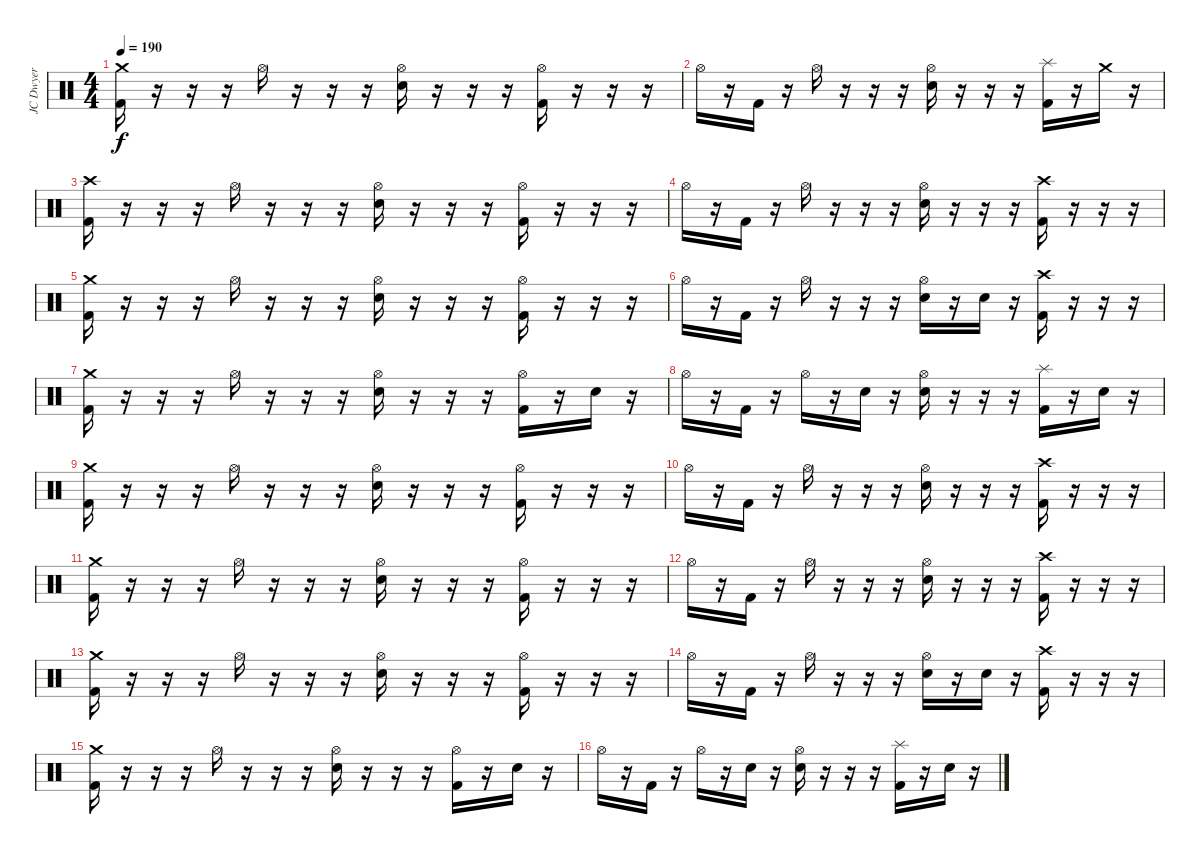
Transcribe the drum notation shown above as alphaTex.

\track ("JC Dwyer" "JC Dwyer") {instrument percussion}
\staff {score}
\articulation defaults
\ts (4 4)
\tempo 190
\clef neutral
\ks c
("Crash medium (hit)" "Kick (hit) 2").16{dy f} r.16 r.16 r.16 "Hi-Hat (open)".16 r.16 r.16 r.16 ("Hi-Hat (open)" "Electric Snare (hit)").16 r.16 r.16 r.16 ("Hi-Hat (open)" "Kick (hit) 2").16 r.16 r.16 r.16 |
"Hi-Hat (open)".16 r.16 "Kick (hit) 2".16 r.16 "Hi-Hat (open)".16 r.16 r.16 r.16 ("Hi-Hat (open)" "Electric Snare (hit)").16 r.16 r.16 r.16 ("Splash (hit)" "Kick (hit) 2").16 r.16 "Crash medium (hit)".16 r.16 |
("Crash high (hit)" "Kick (hit) 2").16 r.16 r.16 r.16 "Hi-Hat (open)".16 r.16 r.16 r.16 ("Hi-Hat (open)" "Electric Snare (hit)").16 r.16 r.16 r.16 ("Hi-Hat (open)" "Kick (hit) 2").16 r.16 r.16 r.16 |
"Hi-Hat (open)".16 r.16 "Kick (hit) 2".16 r.16 "Hi-Hat (open)".16 r.16 r.16 r.16 ("Hi-Hat (open)" "Electric Snare (hit)").16 r.16 r.16 r.16 ("Crash high (hit)" "Kick (hit) 2").16 r.16 r.16 r.16 |
("Crash medium (hit)" "Kick (hit) 2").16 r.16 r.16 r.16 "Hi-Hat (open)".16 r.16 r.16 r.16 ("Hi-Hat (open)" "Electric Snare (hit)").16 r.16 r.16 r.16 ("Hi-Hat (open)" "Kick (hit) 2").16 r.16 r.16 r.16 |
"Hi-Hat (open)".16 r.16 "Kick (hit) 2".16 r.16 "Hi-Hat (open)".16 r.16 r.16 r.16 ("Hi-Hat (open)" "Electric Snare (hit)").16 r.16 "Electric Snare (hit)".16 r.16 ("Crash high (hit)" "Kick (hit) 2").16 r.16 r.16 r.16 |
("Crash medium (hit)" "Kick (hit) 2").16 r.16 r.16 r.16 "Hi-Hat (open)".16 r.16 r.16 r.16 ("Hi-Hat (open)" "Electric Snare (hit)").16 r.16 r.16 r.16 ("Hi-Hat (open)" "Kick (hit) 2").16 r.16 "Electric Snare (hit)".16 r.16 |
"Hi-Hat (open)".16 r.16 "Kick (hit) 2".16 r.16 "Hi-Hat (open)".16 r.16 "Electric Snare (hit)".16 r.16 ("Hi-Hat (open)" "Electric Snare (hit)").16 r.16 r.16 r.16 ("Splash (hit)" "Kick (hit) 2").16 r.16 "Electric Snare (hit)".16 r.16 |
("Crash medium (hit)" "Kick (hit) 2").16 r.16 r.16 r.16 "Hi-Hat (open)".16 r.16 r.16 r.16 ("Hi-Hat (open)" "Electric Snare (hit)").16 r.16 r.16 r.16 ("Hi-Hat (open)" "Kick (hit) 2").16 r.16 r.16 r.16 |
"Hi-Hat (open)".16 r.16 "Kick (hit) 2".16 r.16 "Hi-Hat (open)".16 r.16 r.16 r.16 ("Hi-Hat (open)" "Electric Snare (hit)").16 r.16 r.16 r.16 ("Crash high (hit)" "Kick (hit) 2").16 r.16 r.16 r.16 |
("Crash medium (hit)" "Kick (hit) 2").16 r.16 r.16 r.16 "Hi-Hat (open)".16 r.16 r.16 r.16 ("Hi-Hat (open)" "Electric Snare (hit)").16 r.16 r.16 r.16 ("Hi-Hat (open)" "Kick (hit) 2").16 r.16 r.16 r.16 |
"Hi-Hat (open)".16 r.16 "Kick (hit) 2".16 r.16 "Hi-Hat (open)".16 r.16 r.16 r.16 ("Hi-Hat (open)" "Electric Snare (hit)").16 r.16 r.16 r.16 ("Crash high (hit)" "Kick (hit) 2").16 r.16 r.16 r.16 |
("Crash medium (hit)" "Kick (hit) 2").16 r.16 r.16 r.16 "Hi-Hat (open)".16 r.16 r.16 r.16 ("Hi-Hat (open)" "Electric Snare (hit)").16 r.16 r.16 r.16 ("Hi-Hat (open)" "Kick (hit) 2").16 r.16 r.16 r.16 |
"Hi-Hat (open)".16 r.16 "Kick (hit) 2".16 r.16 "Hi-Hat (open)".16 r.16 r.16 r.16 ("Hi-Hat (open)" "Electric Snare (hit)").16 r.16 "Electric Snare (hit)".16 r.16 ("Crash high (hit)" "Kick (hit) 2").16 r.16 r.16 r.16 |
("Crash medium (hit)" "Kick (hit) 2").16 r.16 r.16 r.16 "Hi-Hat (open)".16 r.16 r.16 r.16 ("Hi-Hat (open)" "Electric Snare (hit)").16 r.16 r.16 r.16 ("Hi-Hat (open)" "Kick (hit) 2").16 r.16 "Electric Snare (hit)".16 r.16 |
"Hi-Hat (open)".16 r.16 "Kick (hit) 2".16 r.16 "Hi-Hat (open)".16 r.16 "Electric Snare (hit)".16 r.16 ("Hi-Hat (open)" "Electric Snare (hit)").16 r.16 r.16 r.16 ("Splash (hit)" "Kick (hit) 2").16 r.16 "Electric Snare (hit)".16 r.16
